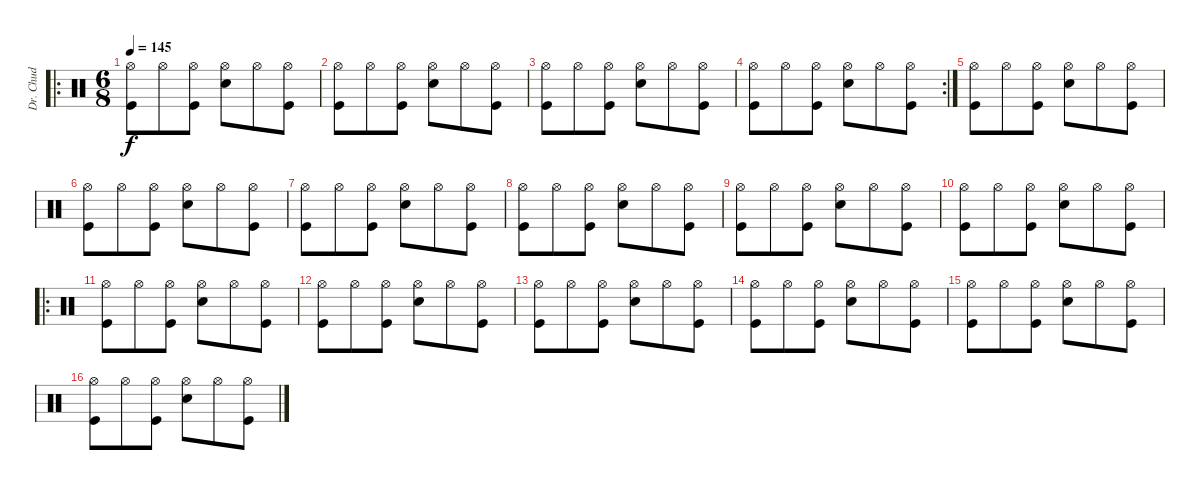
\track ("Dr. Chud" "Dr. Chud") {instrument percussion}
\staff {score}
\articulation defaults
\ro
\ts (6 8)
\tempo 145
\clef neutral
\ks c
("Hi-Hat (open)" "Kick (hit)").8{dy f} "Hi-Hat (open)".8 ("Hi-Hat (open)" "Kick (hit)").8 ("Hi-Hat (open)" "Snare (hit) 2").8 "Hi-Hat (open)".8 ("Hi-Hat (open)" "Kick (hit)").8 |
("Hi-Hat (open)" "Kick (hit)").8 "Hi-Hat (open)".8 ("Hi-Hat (open)" "Kick (hit)").8 ("Hi-Hat (open)" "Snare (hit) 2").8 "Hi-Hat (open)".8 ("Hi-Hat (open)" "Kick (hit)").8 |
("Hi-Hat (open)" "Kick (hit)").8 "Hi-Hat (open)".8 ("Hi-Hat (open)" "Kick (hit)").8 ("Hi-Hat (open)" "Snare (hit) 2").8 "Hi-Hat (open)".8 ("Hi-Hat (open)" "Kick (hit)").8 |
\rc 2
("Hi-Hat (open)" "Kick (hit)").8 "Hi-Hat (open)".8 ("Hi-Hat (open)" "Kick (hit)").8 ("Hi-Hat (open)" "Snare (hit) 2").8 "Hi-Hat (open)".8 ("Hi-Hat (open)" "Kick (hit)").8 |
("Hi-Hat (open)" "Kick (hit)").8 "Hi-Hat (open)".8 ("Hi-Hat (open)" "Kick (hit)").8 ("Hi-Hat (open)" "Snare (hit) 2").8 "Hi-Hat (open)".8 ("Hi-Hat (open)" "Kick (hit)").8 |
("Hi-Hat (open)" "Kick (hit)").8 "Hi-Hat (open)".8 ("Hi-Hat (open)" "Kick (hit)").8 ("Hi-Hat (open)" "Snare (hit) 2").8 "Hi-Hat (open)".8 ("Hi-Hat (open)" "Kick (hit)").8 |
("Hi-Hat (open)" "Kick (hit)").8 "Hi-Hat (open)".8 ("Hi-Hat (open)" "Kick (hit)").8 ("Hi-Hat (open)" "Snare (hit) 2").8 "Hi-Hat (open)".8 ("Hi-Hat (open)" "Kick (hit)").8 |
("Hi-Hat (open)" "Kick (hit)").8 "Hi-Hat (open)".8 ("Hi-Hat (open)" "Kick (hit)").8 ("Hi-Hat (open)" "Snare (hit) 2").8 "Hi-Hat (open)".8 ("Hi-Hat (open)" "Kick (hit)").8 |
("Hi-Hat (open)" "Kick (hit)").8 "Hi-Hat (open)".8 ("Hi-Hat (open)" "Kick (hit)").8 ("Hi-Hat (open)" "Snare (hit) 2").8 "Hi-Hat (open)".8 ("Hi-Hat (open)" "Kick (hit)").8 |
("Hi-Hat (open)" "Kick (hit)").8 "Hi-Hat (open)".8 ("Hi-Hat (open)" "Kick (hit)").8 ("Hi-Hat (open)" "Snare (hit) 2").8 "Hi-Hat (open)".8 ("Hi-Hat (open)" "Kick (hit)").8 |
\ro
("Hi-Hat (open)" "Kick (hit)").8 "Hi-Hat (open)".8 ("Hi-Hat (open)" "Kick (hit)").8 ("Hi-Hat (open)" "Snare (hit) 2").8 "Hi-Hat (open)".8 ("Hi-Hat (open)" "Kick (hit)").8 |
("Hi-Hat (open)" "Kick (hit)").8 "Hi-Hat (open)".8 ("Hi-Hat (open)" "Kick (hit)").8 ("Hi-Hat (open)" "Snare (hit) 2").8 "Hi-Hat (open)".8 ("Hi-Hat (open)" "Kick (hit)").8 |
("Hi-Hat (open)" "Kick (hit)").8 "Hi-Hat (open)".8 ("Hi-Hat (open)" "Kick (hit)").8 ("Hi-Hat (open)" "Snare (hit) 2").8 "Hi-Hat (open)".8 ("Hi-Hat (open)" "Kick (hit)").8 |
("Hi-Hat (open)" "Kick (hit)").8 "Hi-Hat (open)".8 ("Hi-Hat (open)" "Kick (hit)").8 ("Hi-Hat (open)" "Snare (hit) 2").8 "Hi-Hat (open)".8 ("Hi-Hat (open)" "Kick (hit)").8 |
("Hi-Hat (open)" "Kick (hit)").8 "Hi-Hat (open)".8 ("Hi-Hat (open)" "Kick (hit)").8 ("Hi-Hat (open)" "Snare (hit) 2").8 "Hi-Hat (open)".8 ("Hi-Hat (open)" "Kick (hit)").8 |
("Hi-Hat (open)" "Kick (hit)").8 "Hi-Hat (open)".8 ("Hi-Hat (open)" "Kick (hit)").8 ("Hi-Hat (open)" "Snare (hit) 2").8 "Hi-Hat (open)".8 ("Hi-Hat (open)" "Kick (hit)").8
